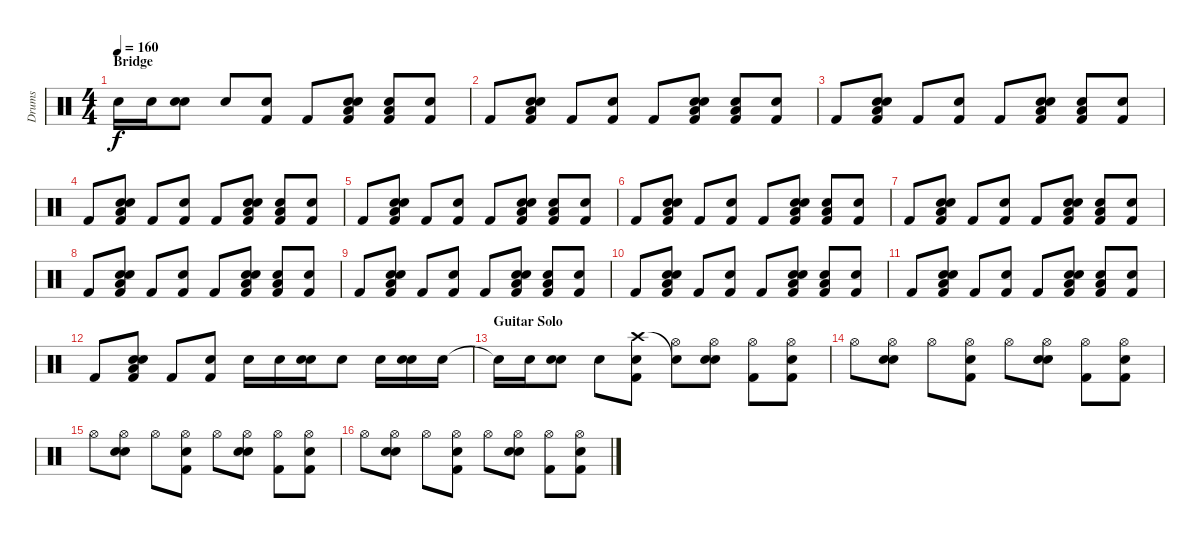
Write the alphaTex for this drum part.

\track ("Drums" "Drums") {instrument percussion}
\staff {score}
\articulation defaults
\ts (4 4)
\section ("" "Bridge")
\tempo 160
\clef neutral
\ks c "Snare (hit) 2".16{dy f} "Snare (hit) 2".16
("Snare (hit) 2" "Hand Clap (hit)").8 "Snare (hit) 2".8 ("Kick (hit) 2" "Hand Clap (hit)").8 "Kick (hit) 2".8 ("Kick (hit) 2" "Low Floor Tom (hit)" "Snare (hit) 2" "Hand Clap (hit)").8 ("Kick (hit) 2" "Low Floor Tom (hit)" "Snare (hit) 2").8 ("Kick (hit) 2" "Hand Clap (hit)").8 |
"Kick (hit) 2".8 ("Kick (hit) 2" "Low Floor Tom (hit)" "Snare (hit) 2" "Hand Clap (hit)").8 "Kick (hit) 2".8 ("Kick (hit) 2" "Hand Clap (hit)").8 "Kick (hit) 2".8 ("Kick (hit) 2" "Low Floor Tom (hit)" "Snare (hit) 2" "Hand Clap (hit)").8 ("Kick (hit) 2" "Low Floor Tom (hit)" "Snare (hit) 2").8 ("Kick (hit) 2" "Hand Clap (hit)").8 |
"Kick (hit) 2".8 ("Kick (hit) 2" "Low Floor Tom (hit)" "Snare (hit) 2" "Hand Clap (hit)").8 "Kick (hit) 2".8 ("Kick (hit) 2" "Hand Clap (hit)").8 "Kick (hit) 2".8 ("Kick (hit) 2" "Low Floor Tom (hit)" "Snare (hit) 2" "Hand Clap (hit)").8 ("Kick (hit) 2" "Low Floor Tom (hit)" "Snare (hit) 2").8 ("Kick (hit) 2" "Hand Clap (hit)").8 |
"Kick (hit) 2".8 ("Kick (hit) 2" "Low Floor Tom (hit)" "Snare (hit) 2" "Hand Clap (hit)").8 "Kick (hit) 2".8 ("Kick (hit) 2" "Hand Clap (hit)").8 "Kick (hit) 2".8 ("Kick (hit) 2" "Low Floor Tom (hit)" "Snare (hit) 2" "Hand Clap (hit)").8 ("Kick (hit) 2" "Low Floor Tom (hit)" "Snare (hit) 2").8 ("Kick (hit) 2" "Hand Clap (hit)").8 |
"Kick (hit) 2".8 ("Kick (hit) 2" "Low Floor Tom (hit)" "Snare (hit) 2" "Hand Clap (hit)").8 "Kick (hit) 2".8 ("Kick (hit) 2" "Hand Clap (hit)").8 "Kick (hit) 2".8 ("Kick (hit) 2" "Low Floor Tom (hit)" "Snare (hit) 2" "Hand Clap (hit)").8 ("Kick (hit) 2" "Low Floor Tom (hit)" "Snare (hit) 2").8 ("Kick (hit) 2" "Hand Clap (hit)").8 |
"Kick (hit) 2".8 ("Kick (hit) 2" "Low Floor Tom (hit)" "Snare (hit) 2" "Hand Clap (hit)").8 "Kick (hit) 2".8 ("Kick (hit) 2" "Hand Clap (hit)").8 "Kick (hit) 2".8 ("Kick (hit) 2" "Low Floor Tom (hit)" "Snare (hit) 2" "Hand Clap (hit)").8 ("Kick (hit) 2" "Low Floor Tom (hit)" "Snare (hit) 2").8 ("Kick (hit) 2" "Hand Clap (hit)").8 |
"Kick (hit) 2".8 ("Kick (hit) 2" "Low Floor Tom (hit)" "Snare (hit) 2" "Hand Clap (hit)").8 "Kick (hit) 2".8 ("Kick (hit) 2" "Hand Clap (hit)").8 "Kick (hit) 2".8 ("Kick (hit) 2" "Low Floor Tom (hit)" "Snare (hit) 2" "Hand Clap (hit)").8 ("Kick (hit) 2" "Low Floor Tom (hit)" "Snare (hit) 2").8 ("Kick (hit) 2" "Hand Clap (hit)").8 |
"Kick (hit) 2".8 ("Kick (hit) 2" "Low Floor Tom (hit)" "Snare (hit) 2" "Hand Clap (hit)").8 "Kick (hit) 2".8 ("Kick (hit) 2" "Hand Clap (hit)").8 "Kick (hit) 2".8 ("Kick (hit) 2" "Low Floor Tom (hit)" "Snare (hit) 2" "Hand Clap (hit)").8 ("Kick (hit) 2" "Low Floor Tom (hit)" "Snare (hit) 2").8 ("Kick (hit) 2" "Hand Clap (hit)").8 |
"Kick (hit) 2".8 ("Kick (hit) 2" "Low Floor Tom (hit)" "Snare (hit) 2" "Hand Clap (hit)").8 "Kick (hit) 2".8 ("Kick (hit) 2" "Hand Clap (hit)").8 "Kick (hit) 2".8 ("Kick (hit) 2" "Low Floor Tom (hit)" "Snare (hit) 2" "Hand Clap (hit)").8 ("Kick (hit) 2" "Low Floor Tom (hit)" "Snare (hit) 2").8 ("Kick (hit) 2" "Hand Clap (hit)").8 |
"Kick (hit) 2".8 ("Kick (hit) 2" "Low Floor Tom (hit)" "Snare (hit) 2" "Hand Clap (hit)").8 "Kick (hit) 2".8 ("Kick (hit) 2" "Hand Clap (hit)").8 "Kick (hit) 2".8 ("Kick (hit) 2" "Low Floor Tom (hit)" "Snare (hit) 2" "Hand Clap (hit)").8 ("Kick (hit) 2" "Low Floor Tom (hit)" "Snare (hit) 2").8 ("Kick (hit) 2" "Hand Clap (hit)").8 |
"Kick (hit) 2".8 ("Kick (hit) 2" "Low Floor Tom (hit)" "Snare (hit) 2" "Hand Clap (hit)").8 "Kick (hit) 2".8 ("Kick (hit) 2" "Hand Clap (hit)").8 "Kick (hit) 2".8 ("Kick (hit) 2" "Low Floor Tom (hit)" "Snare (hit) 2" "Hand Clap (hit)").8 ("Kick (hit) 2" "Low Floor Tom (hit)" "Snare (hit) 2").8 ("Kick (hit) 2" "Hand Clap (hit)").8 |
"Kick (hit) 2".8 ("Kick (hit) 2" "Low Floor Tom (hit)" "Snare (hit) 2" "Hand Clap (hit)").8 "Kick (hit) 2".8 ("Kick (hit) 2" "Hand Clap (hit)").8 "Snare (hit) 2".16 "Snare (hit) 2".16 ("Snare (hit) 2" "Hand Clap (hit)").16 "Snare (hit) 2".8 "Snare (hit) 2".16 ("Snare (hit) 2" "Hand Clap (hit)").16 "Snare (hit) 2".16 |
\section ("" "Guitar Solo")
"Snare (hit)"{t}.16 "Snare (hit) 2".16 ("Snare (hit) 2" "Hand Clap (hit)").8 "Snare (hit) 2".8 ("Kick (hit) 2" "Crash high (hit)" "Hand Clap (hit)").8 ("Hi-Hat (open)" "Snare (hit)"{t}).8 ("Snare (hit) 2" "Hi-Hat (open)" "Hand Clap (hit)").8 ("Kick (hit) 2" "Hi-Hat (open)").8 ("Kick (hit) 2" "Hi-Hat (open)" "Hand Clap (hit)").8 |
"Hi-Hat (open)".8 ("Snare (hit) 2" "Hi-Hat (open)" "Hand Clap (hit)").8 "Hi-Hat (open)".8 ("Kick (hit) 2" "Hi-Hat (open)" "Hand Clap (hit)").8 "Hi-Hat (open)".8 ("Snare (hit) 2" "Hi-Hat (open)" "Hand Clap (hit)").8 ("Kick (hit) 2" "Hi-Hat (open)").8 ("Kick (hit) 2" "Hi-Hat (open)" "Hand Clap (hit)").8 |
"Hi-Hat (open)".8 ("Snare (hit) 2" "Hi-Hat (open)" "Hand Clap (hit)").8 "Hi-Hat (open)".8 ("Kick (hit) 2" "Hi-Hat (open)" "Hand Clap (hit)").8 "Hi-Hat (open)".8 ("Snare (hit) 2" "Hi-Hat (open)" "Hand Clap (hit)").8 ("Kick (hit) 2" "Hi-Hat (open)").8 ("Kick (hit) 2" "Hi-Hat (open)" "Hand Clap (hit)").8 |
"Hi-Hat (open)".8 ("Snare (hit) 2" "Hi-Hat (open)" "Hand Clap (hit)").8 "Hi-Hat (open)".8 ("Kick (hit) 2" "Hi-Hat (open)" "Hand Clap (hit)").8 "Hi-Hat (open)".8 ("Snare (hit) 2" "Hi-Hat (open)" "Hand Clap (hit)").8 ("Kick (hit) 2" "Hi-Hat (open)").8 ("Kick (hit) 2" "Hi-Hat (open)" "Hand Clap (hit)").8
